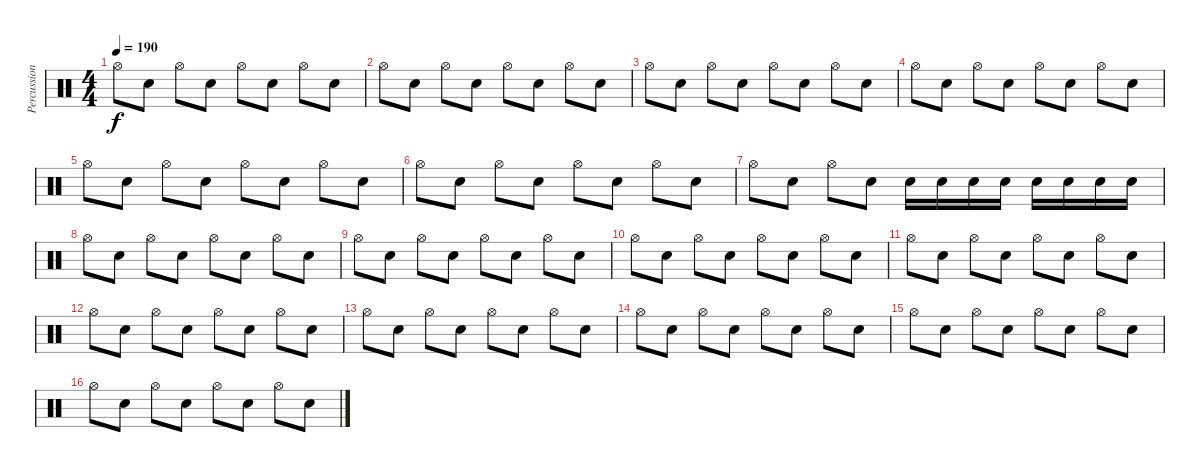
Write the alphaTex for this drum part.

\track ("Percussions" "Percussion") {instrument percussion}
\staff {score}
\articulation defaults
\ts (4 4)
\tempo 190
\clef neutral
\ks c "Hi-Hat (open)".8{dy f} "Snare (hit) 2".8 "Hi-Hat (open)".8 "Snare (hit) 2".8 "Hi-Hat (open)".8 "Snare (hit) 2".8 "Hi-Hat (open)".8 "Snare (hit) 2".8
|
"Hi-Hat (open)".8 "Snare (hit) 2".8 "Hi-Hat (open)".8 "Snare (hit) 2".8 "Hi-Hat (open)".8 "Snare (hit) 2".8 "Hi-Hat (open)".8 "Snare (hit) 2".8 |
"Hi-Hat (open)".8 "Snare (hit) 2".8 "Hi-Hat (open)".8 "Snare (hit) 2".8 "Hi-Hat (open)".8 "Snare (hit) 2".8 "Hi-Hat (open)".8 "Snare (hit) 2".8 |
"Hi-Hat (open)".8 "Snare (hit) 2".8 "Hi-Hat (open)".8 "Snare (hit) 2".8 "Hi-Hat (open)".8 "Snare (hit) 2".8 "Hi-Hat (open)".8 "Snare (hit) 2".8 |
"Hi-Hat (open)".8 "Snare (hit) 2".8 "Hi-Hat (open)".8 "Snare (hit) 2".8 "Hi-Hat (open)".8 "Snare (hit) 2".8 "Hi-Hat (open)".8 "Snare (hit) 2".8 |
"Hi-Hat (open)".8 "Snare (hit) 2".8 "Hi-Hat (open)".8 "Snare (hit) 2".8 "Hi-Hat (open)".8 "Snare (hit) 2".8 "Hi-Hat (open)".8 "Snare (hit) 2".8 |
"Hi-Hat (open)".8 "Snare (hit) 2".8 "Hi-Hat (open)".8 "Snare (hit) 2".8 "Electric Snare (hit)".16 "Electric Snare (hit)".16 "Electric Snare (hit)".16 "Electric Snare (hit)".16 "Electric Snare (hit)".16 "Electric Snare (hit)".16 "Electric Snare (hit)".16 "Electric Snare (hit)".16 |
"Hi-Hat (open)".8 "Snare (hit) 2".8 "Hi-Hat (open)".8 "Snare (hit) 2".8 "Hi-Hat (open)".8 "Snare (hit) 2".8 "Hi-Hat (open)".8 "Snare (hit) 2".8 |
"Hi-Hat (open)".8 "Snare (hit) 2".8 "Hi-Hat (open)".8 "Snare (hit) 2".8 "Hi-Hat (open)".8 "Snare (hit) 2".8 "Hi-Hat (open)".8 "Snare (hit) 2".8 |
"Hi-Hat (open)".8 "Snare (hit) 2".8 "Hi-Hat (open)".8 "Snare (hit) 2".8 "Hi-Hat (open)".8 "Snare (hit) 2".8 "Hi-Hat (open)".8 "Snare (hit) 2".8 |
"Hi-Hat (open)".8 "Snare (hit) 2".8 "Hi-Hat (open)".8 "Snare (hit) 2".8 "Hi-Hat (open)".8 "Snare (hit) 2".8 "Hi-Hat (open)".8 "Snare (hit) 2".8 |
"Hi-Hat (open)".8 "Snare (hit) 2".8 "Hi-Hat (open)".8 "Snare (hit) 2".8 "Hi-Hat (open)".8 "Snare (hit) 2".8 "Hi-Hat (open)".8 "Snare (hit) 2".8 |
"Hi-Hat (open)".8 "Snare (hit) 2".8 "Hi-Hat (open)".8 "Snare (hit) 2".8 "Hi-Hat (open)".8 "Snare (hit) 2".8 "Hi-Hat (open)".8 "Snare (hit) 2".8 |
"Hi-Hat (open)".8 "Snare (hit) 2".8 "Hi-Hat (open)".8 "Snare (hit) 2".8 "Hi-Hat (open)".8 "Snare (hit) 2".8 "Hi-Hat (open)".8 "Snare (hit) 2".8 |
"Hi-Hat (open)".8 "Snare (hit) 2".8 "Hi-Hat (open)".8 "Snare (hit) 2".8 "Hi-Hat (open)".8 "Snare (hit) 2".8 "Hi-Hat (open)".8 "Snare (hit) 2".8 |
"Hi-Hat (open)".8 "Snare (hit) 2".8 "Hi-Hat (open)".8 "Snare (hit) 2".8 "Hi-Hat (open)".8 "Snare (hit) 2".8 "Hi-Hat (open)".8 "Snare (hit) 2".8
